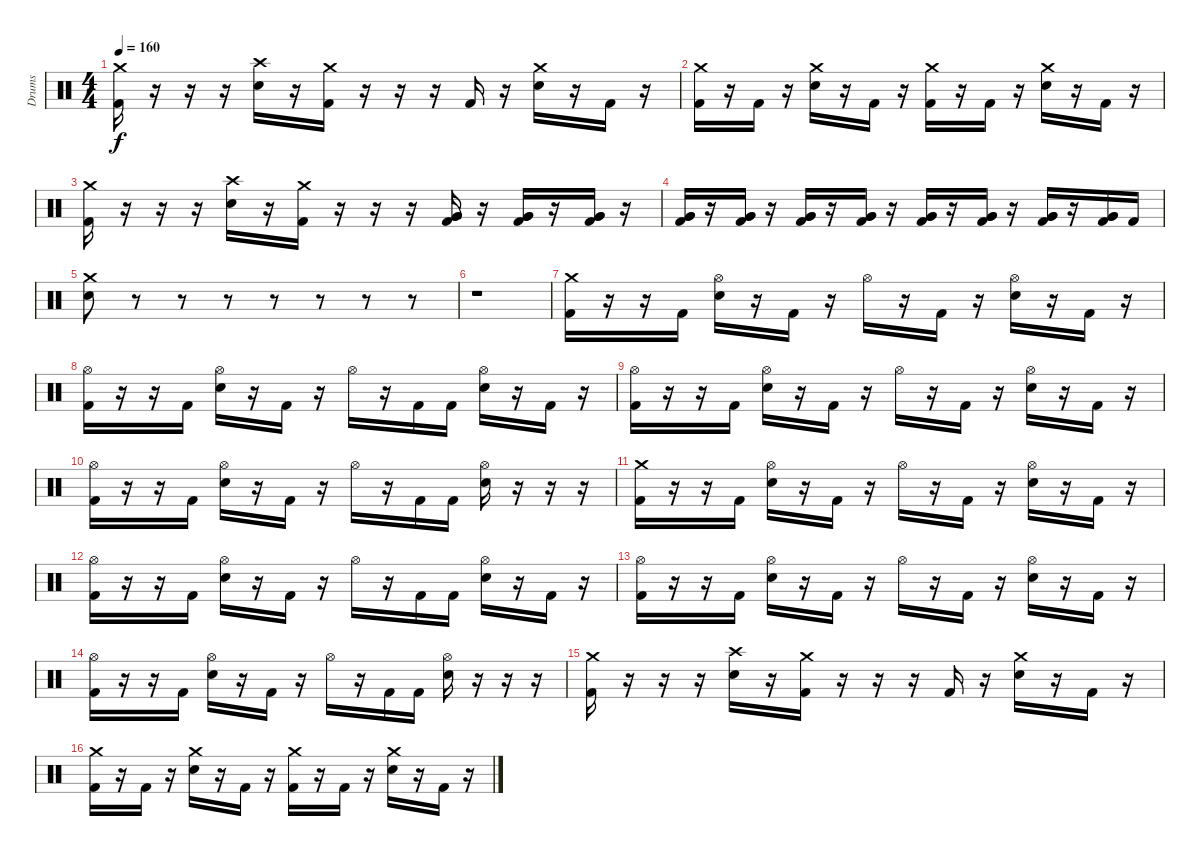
\track ("Drums" "Drums") {instrument percussion}
\staff {score}
\articulation defaults
\ts (4 4)
\tempo 160
\clef neutral
\ks c
("Crash medium (hit)" "Kick (hit) 2").16{dy f} r.16 r.16 r.16 ("Crash high (hit)" "Electric Snare (hit)").16 r.16 ("Crash medium (hit)" "Kick (hit) 2").16 r.16 r.16 r.16 "Kick (hit) 2".16 r.16 ("Crash medium (hit)" "Electric Snare (hit)").16 r.16 "Kick (hit) 2".16 r.16 |
("Crash medium (hit)" "Kick (hit) 2").16 r.16 "Kick (hit) 2".16 r.16 ("Crash medium (hit)" "Electric Snare (hit)").16 r.16 "Kick (hit) 2".16 r.16 ("Crash medium (hit)" "Kick (hit) 2").16 r.16 "Kick (hit) 2".16 r.16 ("Crash medium (hit)" "Electric Snare (hit)").16 r.16 "Kick (hit) 2".16 r.16 |
("Crash medium (hit)" "Kick (hit) 2").16 r.16 r.16 r.16 ("Crash high (hit)" "Electric Snare (hit)").16 r.16 ("Crash medium (hit)" "Kick (hit) 2").16 r.16 r.16 r.16 ("Very Low Tom (hit)" "Very Low Tom (hit)" "Kick (hit) 2").16 r.16 ("Very Low Tom (hit)" "Very Low Tom (hit)" "Kick (hit) 2").16 r.16 ("Very Low Tom (hit)" "Very Low Tom (hit)" "Kick (hit) 2").16 r.16 |
("Very Low Tom (hit)" "Very Low Tom (hit)" "Kick (hit) 2").16 r.16 ("Very Low Tom (hit)" "Very Low Tom (hit)" "Kick (hit) 2").16 r.16 ("Very Low Tom (hit)" "Very Low Tom (hit)" "Kick (hit) 2").16 r.16 ("Very Low Tom (hit)" "Very Low Tom (hit)" "Kick (hit) 2").16 r.16 ("Very Low Tom (hit)" "Very Low Tom (hit)" "Kick (hit) 2").16 r.16 ("Very Low Tom (hit)" "Very Low Tom (hit)" "Kick (hit) 2").16 r.16 ("Very Low Tom (hit)" "Very Low Tom (hit)" "Kick (hit) 2").16 r.16 ("Very Low Tom (hit)" "Very Low Tom (hit)" "Kick (hit) 2").16 "Kick (hit) 2".16 |
("Crash medium (hit)" "Electric Snare (hit)").8 r.8 r.8 r.8 r.8 r.8 r.8 r.8 |
r.1 |
("Crash medium (hit)" "Kick (hit) 2").16 r.16 r.16 "Kick (hit) 2".16 ("Hi-Hat (open)" "Electric Snare (hit)").16 r.16 "Kick (hit) 2".16 r.16 "Hi-Hat (open)".16 r.16 "Kick (hit) 2".16 r.16 ("Hi-Hat (open)" "Electric Snare (hit)").16 r.16 "Kick (hit) 2".16 r.16 |
("Hi-Hat (open)" "Kick (hit) 2").16 r.16 r.16 "Kick (hit) 2".16 ("Hi-Hat (open)" "Electric Snare (hit)").16 r.16 "Kick (hit) 2".16 r.16 "Hi-Hat (open)".16 r.16 "Kick (hit) 2".16 "Kick (hit) 2".16 ("Hi-Hat (open)" "Electric Snare (hit)").16 r.16 "Kick (hit) 2".16 r.16 |
("Hi-Hat (open)" "Kick (hit) 2").16 r.16 r.16 "Kick (hit) 2".16 ("Hi-Hat (open)" "Electric Snare (hit)").16 r.16 "Kick (hit) 2".16 r.16 "Hi-Hat (open)".16 r.16 "Kick (hit) 2".16 r.16 ("Hi-Hat (open)" "Electric Snare (hit)").16 r.16 "Kick (hit) 2".16 r.16 |
("Hi-Hat (open)" "Kick (hit) 2").16 r.16 r.16 "Kick (hit) 2".16 ("Hi-Hat (open)" "Electric Snare (hit)").16 r.16 "Kick (hit) 2".16 r.16 "Hi-Hat (open)".16 r.16 "Kick (hit) 2".16 "Kick (hit) 2".16 ("Hi-Hat (open)" "Electric Snare (hit)").16 r.16 r.16 r.16 |
("Crash medium (hit)" "Kick (hit) 2").16 r.16 r.16 "Kick (hit) 2".16 ("Hi-Hat (open)" "Electric Snare (hit)").16 r.16 "Kick (hit) 2".16 r.16 "Hi-Hat (open)".16 r.16 "Kick (hit) 2".16 r.16 ("Hi-Hat (open)" "Electric Snare (hit)").16 r.16 "Kick (hit) 2".16 r.16 |
("Hi-Hat (open)" "Kick (hit) 2").16 r.16 r.16 "Kick (hit) 2".16 ("Hi-Hat (open)" "Electric Snare (hit)").16 r.16 "Kick (hit) 2".16 r.16 "Hi-Hat (open)".16 r.16 "Kick (hit) 2".16 "Kick (hit) 2".16 ("Hi-Hat (open)" "Electric Snare (hit)").16 r.16 "Kick (hit) 2".16 r.16 |
("Hi-Hat (open)" "Kick (hit) 2").16 r.16 r.16 "Kick (hit) 2".16 ("Hi-Hat (open)" "Electric Snare (hit)").16 r.16 "Kick (hit) 2".16 r.16 "Hi-Hat (open)".16 r.16 "Kick (hit) 2".16 r.16 ("Hi-Hat (open)" "Electric Snare (hit)").16 r.16 "Kick (hit) 2".16 r.16 |
("Hi-Hat (open)" "Kick (hit) 2").16 r.16 r.16 "Kick (hit) 2".16 ("Hi-Hat (open)" "Electric Snare (hit)").16 r.16 "Kick (hit) 2".16 r.16 "Hi-Hat (open)".16 r.16 "Kick (hit) 2".16 "Kick (hit) 2".16 ("Hi-Hat (open)" "Electric Snare (hit)").16 r.16 r.16 r.16 |
("Crash medium (hit)" "Kick (hit) 2").16 r.16 r.16 r.16 ("Crash high (hit)" "Electric Snare (hit)").16 r.16 ("Crash medium (hit)" "Kick (hit) 2").16 r.16 r.16 r.16 "Kick (hit) 2".16 r.16 ("Crash medium (hit)" "Electric Snare (hit)").16 r.16 "Kick (hit) 2".16 r.16 |
("Crash medium (hit)" "Kick (hit) 2").16 r.16 "Kick (hit) 2".16 r.16 ("Crash medium (hit)" "Electric Snare (hit)").16 r.16 "Kick (hit) 2".16 r.16 ("Crash medium (hit)" "Kick (hit) 2").16 r.16 "Kick (hit) 2".16 r.16 ("Crash medium (hit)" "Electric Snare (hit)").16 r.16 "Kick (hit) 2".16 r.16
